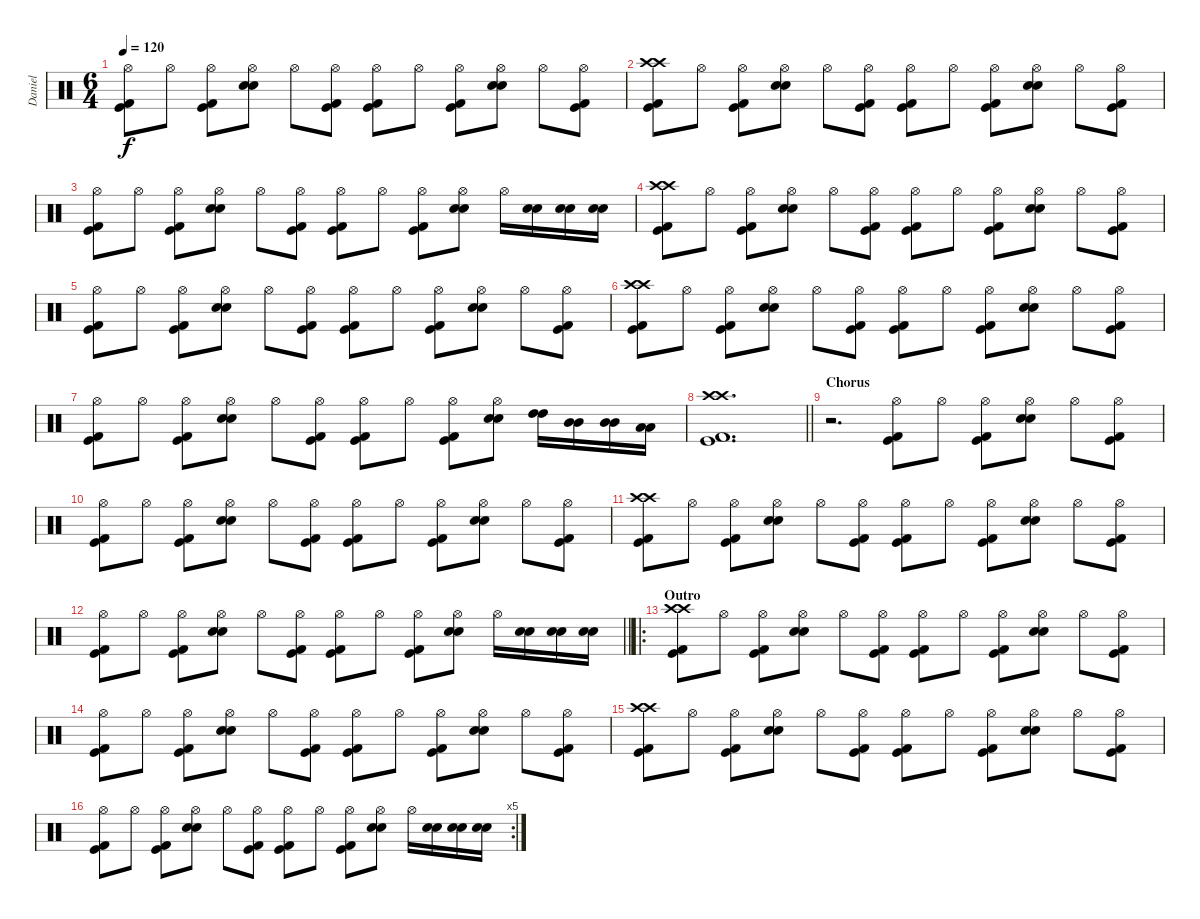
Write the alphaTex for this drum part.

\track ("Daniel" "Daniel") {instrument percussion}
\staff {score}
\articulation defaults
\ts (6 4)
\tempo 120
\clef neutral
\ks c
("Hi-Hat (open)" "Kick (hit) 2" "Kick (hit)").8{dy f} "Hi-Hat (open)".8 ("Hi-Hat (open)" "Kick (hit) 2" "Kick (hit)").8 ("Hi-Hat (open)" "Snare (hit) 2" "Electric Snare (hit)").8 "Hi-Hat (open)".8 ("Hi-Hat (open)" "Kick (hit) 2" "Kick (hit)").8 ("Hi-Hat (open)" "Kick (hit) 2" "Kick (hit)").8 "Hi-Hat (open)".8 ("Hi-Hat (open)" "Kick (hit) 2" "Kick (hit)").8 ("Hi-Hat (open)" "Snare (hit) 2" "Electric Snare (hit)").8 "Hi-Hat (open)".8 ("Hi-Hat (open)" "Kick (hit) 2" "Kick (hit)").8 |
("Crash high (hit)" "Crash high (hit)" "Kick (hit) 2" "Kick (hit)").8 "Hi-Hat (open)".8 ("Hi-Hat (open)" "Kick (hit) 2" "Kick (hit)").8 ("Hi-Hat (open)" "Snare (hit) 2" "Electric Snare (hit)").8 "Hi-Hat (open)".8 ("Hi-Hat (open)" "Kick (hit) 2" "Kick (hit)").8 ("Hi-Hat (open)" "Kick (hit) 2" "Kick (hit)").8 "Hi-Hat (open)".8 ("Hi-Hat (open)" "Kick (hit) 2" "Kick (hit)").8 ("Hi-Hat (open)" "Snare (hit) 2" "Electric Snare (hit)").8 "Hi-Hat (open)".8 ("Hi-Hat (open)" "Kick (hit) 2" "Kick (hit)").8 |
("Hi-Hat (open)" "Kick (hit) 2" "Kick (hit)").8 "Hi-Hat (open)".8 ("Hi-Hat (open)" "Kick (hit) 2" "Kick (hit)").8 ("Hi-Hat (open)" "Snare (hit) 2" "Electric Snare (hit)").8 "Hi-Hat (open)".8 ("Hi-Hat (open)" "Kick (hit) 2" "Kick (hit)").8 ("Hi-Hat (open)" "Kick (hit) 2" "Kick (hit)").8 "Hi-Hat (open)".8 ("Hi-Hat (open)" "Kick (hit) 2" "Kick (hit)").8 ("Hi-Hat (open)" "Snare (hit) 2" "Electric Snare (hit)").8 "Hi-Hat (open)".16 ("Snare (hit) 2" "Electric Snare (hit)").16 ("Snare (hit) 2" "Electric Snare (hit)").16 ("Snare (hit) 2" "Electric Snare (hit)").16 |
("Crash high (hit)" "Crash high (hit)" "Kick (hit) 2" "Kick (hit)").8 "Hi-Hat (open)".8 ("Hi-Hat (open)" "Kick (hit) 2" "Kick (hit)").8 ("Hi-Hat (open)" "Snare (hit) 2" "Electric Snare (hit)").8 "Hi-Hat (open)".8 ("Hi-Hat (open)" "Kick (hit) 2" "Kick (hit)").8 ("Hi-Hat (open)" "Kick (hit) 2" "Kick (hit)").8 "Hi-Hat (open)".8 ("Hi-Hat (open)" "Kick (hit) 2" "Kick (hit)").8 ("Hi-Hat (open)" "Snare (hit) 2" "Electric Snare (hit)").8 "Hi-Hat (open)".8 ("Hi-Hat (open)" "Kick (hit) 2" "Kick (hit)").8 |
("Hi-Hat (open)" "Kick (hit) 2" "Kick (hit)").8 "Hi-Hat (open)".8 ("Hi-Hat (open)" "Kick (hit) 2" "Kick (hit)").8 ("Hi-Hat (open)" "Snare (hit) 2" "Electric Snare (hit)").8 "Hi-Hat (open)".8 ("Hi-Hat (open)" "Kick (hit) 2" "Kick (hit)").8 ("Hi-Hat (open)" "Kick (hit) 2" "Kick (hit)").8 "Hi-Hat (open)".8 ("Hi-Hat (open)" "Kick (hit) 2" "Kick (hit)").8 ("Hi-Hat (open)" "Snare (hit) 2" "Electric Snare (hit)").8 "Hi-Hat (open)".8 ("Hi-Hat (open)" "Kick (hit) 2" "Kick (hit)").8 |
("Crash high (hit)" "Crash high (hit)" "Kick (hit) 2" "Kick (hit)").8 "Hi-Hat (open)".8 ("Hi-Hat (open)" "Kick (hit) 2" "Kick (hit)").8 ("Hi-Hat (open)" "Snare (hit) 2" "Electric Snare (hit)").8 "Hi-Hat (open)".8 ("Hi-Hat (open)" "Kick (hit) 2" "Kick (hit)").8 ("Hi-Hat (open)" "Kick (hit) 2" "Kick (hit)").8 "Hi-Hat (open)".8 ("Hi-Hat (open)" "Kick (hit) 2" "Kick (hit)").8 ("Hi-Hat (open)" "Snare (hit) 2" "Electric Snare (hit)").8 "Hi-Hat (open)".8 ("Hi-Hat (open)" "Kick (hit) 2" "Kick (hit)").8 |
("Hi-Hat (open)" "Kick (hit) 2" "Kick (hit)").8 "Hi-Hat (open)".8 ("Hi-Hat (open)" "Kick (hit) 2" "Kick (hit)").8 ("Hi-Hat (open)" "Snare (hit) 2" "Electric Snare (hit)").8 "Hi-Hat (open)".8 ("Hi-Hat (open)" "Kick (hit) 2" "Kick (hit)").8 ("Hi-Hat (open)" "Kick (hit) 2" "Kick (hit)").8 "Hi-Hat (open)".8 ("Hi-Hat (open)" "Kick (hit) 2" "Kick (hit)").8 ("Hi-Hat (open)" "Snare (hit) 2" "Electric Snare (hit)").8 ("High Tom (hit)" "High Tom (hit)").16 ("Mid Tom (hit)" "Mid Tom (hit)").16 ("Mid Tom (hit)" "Mid Tom (hit)").16 ("Low Tom (hit)" "Low Tom (hit)").16 |
\barLineRight lightlight
("Crash high (hit)" "Crash high (hit)" "Kick (hit) 2" "Kick (hit)").1{d} |
\section ("" "Chorus")
r.2{d} ("Hi-Hat (open)" "Kick (hit) 2" "Kick (hit)").8 "Hi-Hat (open)".8 ("Hi-Hat (open)" "Kick (hit) 2" "Kick (hit)").8 ("Hi-Hat (open)" "Snare (hit) 2" "Electric Snare (hit)").8 "Hi-Hat (open)".8 ("Hi-Hat (open)" "Kick (hit) 2" "Kick (hit)").8 |
("Hi-Hat (open)" "Kick (hit) 2" "Kick (hit)").8 "Hi-Hat (open)".8 ("Hi-Hat (open)" "Kick (hit) 2" "Kick (hit)").8 ("Hi-Hat (open)" "Snare (hit) 2" "Electric Snare (hit)").8 "Hi-Hat (open)".8 ("Hi-Hat (open)" "Kick (hit) 2" "Kick (hit)").8 ("Hi-Hat (open)" "Kick (hit) 2" "Kick (hit)").8 "Hi-Hat (open)".8 ("Hi-Hat (open)" "Kick (hit) 2" "Kick (hit)").8 ("Hi-Hat (open)" "Snare (hit) 2" "Electric Snare (hit)").8 "Hi-Hat (open)".8 ("Hi-Hat (open)" "Kick (hit) 2" "Kick (hit)").8 |
("Crash high (hit)" "Crash high (hit)" "Kick (hit) 2" "Kick (hit)").8 "Hi-Hat (open)".8 ("Hi-Hat (open)" "Kick (hit) 2" "Kick (hit)").8 ("Hi-Hat (open)" "Snare (hit) 2" "Electric Snare (hit)").8 "Hi-Hat (open)".8 ("Hi-Hat (open)" "Kick (hit) 2" "Kick (hit)").8 ("Hi-Hat (open)" "Kick (hit) 2" "Kick (hit)").8 "Hi-Hat (open)".8 ("Hi-Hat (open)" "Kick (hit) 2" "Kick (hit)").8 ("Hi-Hat (open)" "Snare (hit) 2" "Electric Snare (hit)").8 "Hi-Hat (open)".8 ("Hi-Hat (open)" "Kick (hit) 2" "Kick (hit)").8 |
\barLineRight lightlight
("Hi-Hat (open)" "Kick (hit) 2" "Kick (hit)").8 "Hi-Hat (open)".8 ("Hi-Hat (open)" "Kick (hit) 2" "Kick (hit)").8 ("Hi-Hat (open)" "Snare (hit) 2" "Electric Snare (hit)").8 "Hi-Hat (open)".8 ("Hi-Hat (open)" "Kick (hit) 2" "Kick (hit)").8 ("Hi-Hat (open)" "Kick (hit) 2" "Kick (hit)").8 "Hi-Hat (open)".8 ("Hi-Hat (open)" "Kick (hit) 2" "Kick (hit)").8 ("Hi-Hat (open)" "Snare (hit) 2" "Electric Snare (hit)").8 "Hi-Hat (open)".16 ("Snare (hit) 2" "Electric Snare (hit)").16 ("Snare (hit) 2" "Electric Snare (hit)").16 ("Snare (hit) 2" "Electric Snare (hit)").16 |
\ro
\section ("" "Outro")
("Crash high (hit)" "Crash high (hit)" "Kick (hit) 2" "Kick (hit)").8 "Hi-Hat (open)".8 ("Hi-Hat (open)" "Kick (hit) 2" "Kick (hit)").8 ("Hi-Hat (open)" "Snare (hit) 2" "Electric Snare (hit)").8 "Hi-Hat (open)".8 ("Hi-Hat (open)" "Kick (hit) 2" "Kick (hit)").8 ("Hi-Hat (open)" "Kick (hit) 2" "Kick (hit)").8 "Hi-Hat (open)".8 ("Hi-Hat (open)" "Kick (hit) 2" "Kick (hit)").8 ("Hi-Hat (open)" "Snare (hit) 2" "Electric Snare (hit)").8 "Hi-Hat (open)".8 ("Hi-Hat (open)" "Kick (hit) 2" "Kick (hit)").8 |
("Hi-Hat (open)" "Kick (hit) 2" "Kick (hit)").8 "Hi-Hat (open)".8 ("Hi-Hat (open)" "Kick (hit) 2" "Kick (hit)").8 ("Hi-Hat (open)" "Snare (hit) 2" "Electric Snare (hit)").8 "Hi-Hat (open)".8 ("Hi-Hat (open)" "Kick (hit) 2" "Kick (hit)").8 ("Hi-Hat (open)" "Kick (hit) 2" "Kick (hit)").8 "Hi-Hat (open)".8 ("Hi-Hat (open)" "Kick (hit) 2" "Kick (hit)").8 ("Hi-Hat (open)" "Snare (hit) 2" "Electric Snare (hit)").8 "Hi-Hat (open)".8 ("Hi-Hat (open)" "Kick (hit) 2" "Kick (hit)").8 |
("Crash high (hit)" "Crash high (hit)" "Kick (hit) 2" "Kick (hit)").8 "Hi-Hat (open)".8 ("Hi-Hat (open)" "Kick (hit) 2" "Kick (hit)").8 ("Hi-Hat (open)" "Snare (hit) 2" "Electric Snare (hit)").8 "Hi-Hat (open)".8 ("Hi-Hat (open)" "Kick (hit) 2" "Kick (hit)").8 ("Hi-Hat (open)" "Kick (hit) 2" "Kick (hit)").8 "Hi-Hat (open)".8 ("Hi-Hat (open)" "Kick (hit) 2" "Kick (hit)").8 ("Hi-Hat (open)" "Snare (hit) 2" "Electric Snare (hit)").8 "Hi-Hat (open)".8 ("Hi-Hat (open)" "Kick (hit) 2" "Kick (hit)").8 |
\rc 5
("Hi-Hat (open)" "Kick (hit) 2" "Kick (hit)").8 "Hi-Hat (open)".8 ("Hi-Hat (open)" "Kick (hit) 2" "Kick (hit)").8 ("Hi-Hat (open)" "Snare (hit) 2" "Electric Snare (hit)").8 "Hi-Hat (open)".8 ("Hi-Hat (open)" "Kick (hit) 2" "Kick (hit)").8 ("Hi-Hat (open)" "Kick (hit) 2" "Kick (hit)").8 "Hi-Hat (open)".8 ("Hi-Hat (open)" "Kick (hit) 2" "Kick (hit)").8 ("Hi-Hat (open)" "Snare (hit) 2" "Electric Snare (hit)").8 "Hi-Hat (open)".16 ("Snare (hit) 2" "Electric Snare (hit)").16 ("Snare (hit) 2" "Electric Snare (hit)").16 ("Snare (hit) 2" "Electric Snare (hit)").16
